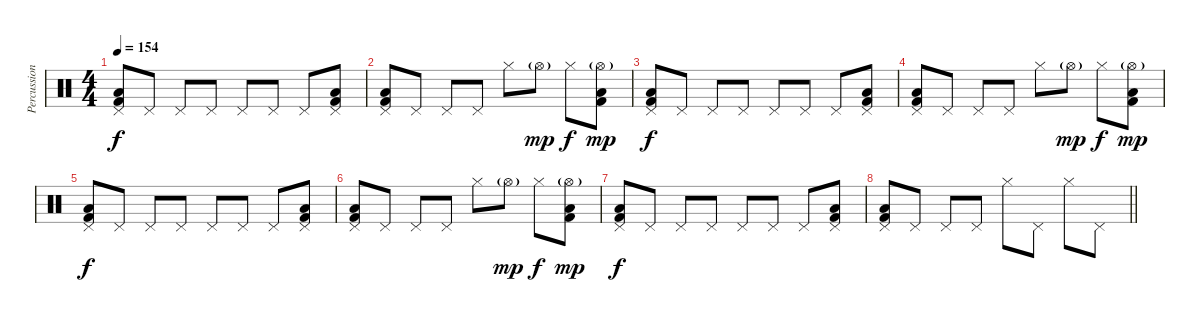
\track ("Percussion" "Percussion") {instrument percussion}
\staff {score}
\articulation defaults
\ts (4 4)
\tempo 154
\clef neutral
\ks c
("Pedal Hi-Hat (hit)" "Low Floor Tom (hit)" "Kick (hit) 2").8{dy f} "Pedal Hi-Hat (hit)".8 "Pedal Hi-Hat (hit)".8 "Pedal Hi-Hat (hit)".8 "Pedal Hi-Hat (hit)".8 "Pedal Hi-Hat (hit)".8 "Pedal Hi-Hat (hit)".8 ("Pedal Hi-Hat (hit)" "Low Floor Tom (hit)" "Kick (hit) 2").8 |
("Pedal Hi-Hat (hit)" "Low Floor Tom (hit)" "Kick (hit) 2").8 "Pedal Hi-Hat (hit)".8 "Pedal Hi-Hat (hit)".8 "Pedal Hi-Hat (hit)".8 "Hi-Hat (closed)".8 "Hi-Hat (open)"{g}.8{dy mp} "Hi-Hat (closed)".8{dy f} ("Hi-Hat (open)"{g} "Low Floor Tom (hit)" "Kick (hit) 2").8{dy mp} |
("Pedal Hi-Hat (hit)" "Low Floor Tom (hit)" "Kick (hit) 2").8{dy f} "Pedal Hi-Hat (hit)".8 "Pedal Hi-Hat (hit)".8 "Pedal Hi-Hat (hit)".8 "Pedal Hi-Hat (hit)".8 "Pedal Hi-Hat (hit)".8 "Pedal Hi-Hat (hit)".8 ("Pedal Hi-Hat (hit)" "Low Floor Tom (hit)" "Kick (hit) 2").8 |
("Pedal Hi-Hat (hit)" "Low Floor Tom (hit)" "Kick (hit) 2").8 "Pedal Hi-Hat (hit)".8 "Pedal Hi-Hat (hit)".8 "Pedal Hi-Hat (hit)".8 "Hi-Hat (closed)".8 "Hi-Hat (open)"{g}.8{dy mp} "Hi-Hat (closed)".8{dy f} ("Hi-Hat (open)"{g} "Low Floor Tom (hit)" "Kick (hit) 2").8{dy mp} |
("Pedal Hi-Hat (hit)" "Low Floor Tom (hit)" "Kick (hit) 2").8{dy f} "Pedal Hi-Hat (hit)".8 "Pedal Hi-Hat (hit)".8 "Pedal Hi-Hat (hit)".8 "Pedal Hi-Hat (hit)".8 "Pedal Hi-Hat (hit)".8 "Pedal Hi-Hat (hit)".8 ("Pedal Hi-Hat (hit)" "Low Floor Tom (hit)" "Kick (hit) 2").8 |
("Pedal Hi-Hat (hit)" "Low Floor Tom (hit)" "Kick (hit) 2").8 "Pedal Hi-Hat (hit)".8 "Pedal Hi-Hat (hit)".8 "Pedal Hi-Hat (hit)".8 "Hi-Hat (closed)".8 "Hi-Hat (open)"{g}.8{dy mp} "Hi-Hat (closed)".8{dy f} ("Hi-Hat (open)"{g} "Low Floor Tom (hit)" "Kick (hit) 2").8{dy mp} |
("Pedal Hi-Hat (hit)" "Low Floor Tom (hit)" "Kick (hit) 2").8{dy f} "Pedal Hi-Hat (hit)".8 "Pedal Hi-Hat (hit)".8 "Pedal Hi-Hat (hit)".8 "Pedal Hi-Hat (hit)".8 "Pedal Hi-Hat (hit)".8 "Pedal Hi-Hat (hit)".8 ("Pedal Hi-Hat (hit)" "Low Floor Tom (hit)" "Kick (hit) 2").8 |
\barLineRight lightlight
("Pedal Hi-Hat (hit)" "Low Floor Tom (hit)" "Kick (hit) 2").8 "Pedal Hi-Hat (hit)".8 "Pedal Hi-Hat (hit)".8 "Pedal Hi-Hat (hit)".8 "Hi-Hat (closed)".8 "Pedal Hi-Hat (hit)".8 "Hi-Hat (closed)".8 "Pedal Hi-Hat (hit)".8
